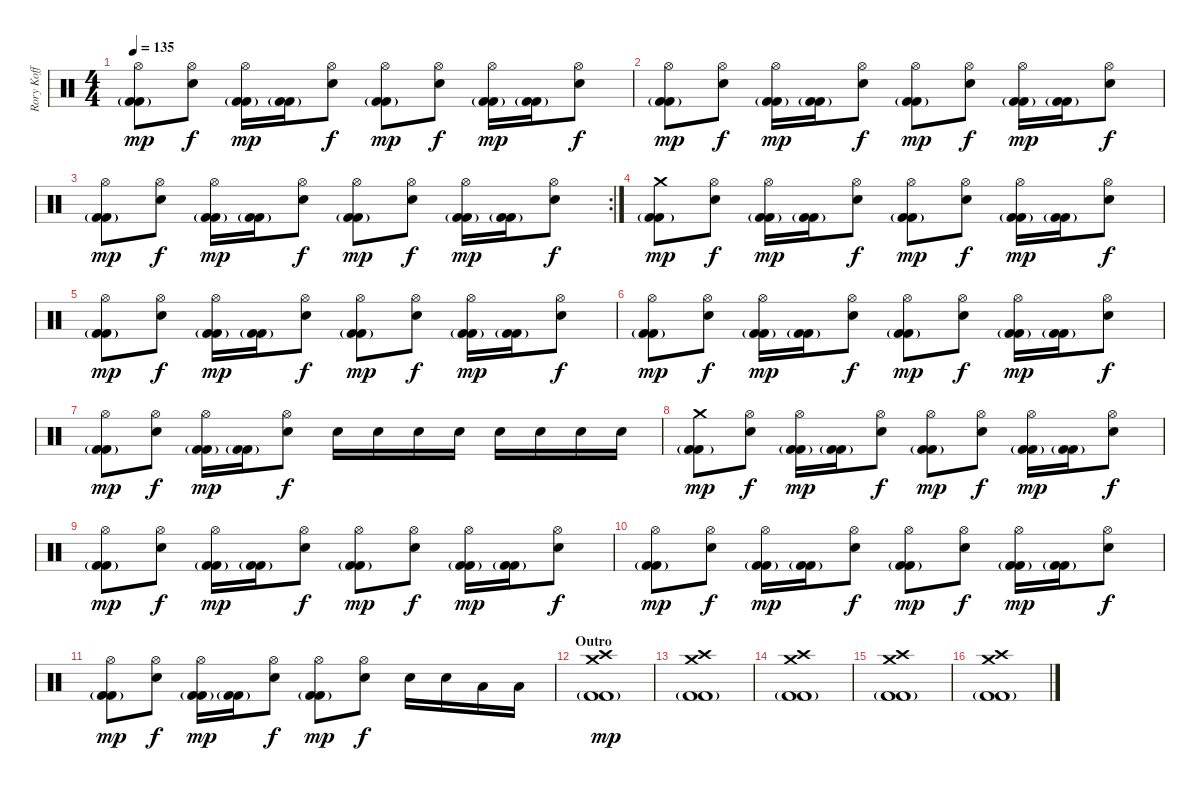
\track ("Rory Koff" "Rory Koff") {instrument percussion}
\staff {score}
\articulation defaults
\ts (4 4)
\tempo 135
\clef neutral
\ks c
("Hi-Hat (open)" "Kick (hit) 2"{g} "Kick (hit) 2").8{dy mp} ("Hi-Hat (open)" "Snare (hit) 2").8{dy f} ("Hi-Hat (open)" "Kick (hit) 2"{g} "Kick (hit) 2").16{dy mp} ("Kick (hit) 2"{g} "Kick (hit) 2").16 ("Hi-Hat (open)" "Snare (hit) 2").8{dy f} ("Hi-Hat (open)" "Kick (hit) 2"{g} "Kick (hit) 2").8{dy mp} ("Hi-Hat (open)" "Snare (hit) 2").8{dy f} ("Hi-Hat (open)" "Kick (hit) 2"{g} "Kick (hit) 2").16{dy mp} ("Kick (hit) 2"{g} "Kick (hit) 2").16 ("Hi-Hat (open)" "Snare (hit) 2").8{dy f} |
("Hi-Hat (open)" "Kick (hit) 2"{g} "Kick (hit) 2").8{dy mp} ("Hi-Hat (open)" "Snare (hit) 2").8{dy f} ("Hi-Hat (open)" "Kick (hit) 2"{g} "Kick (hit) 2").16{dy mp} ("Kick (hit) 2"{g} "Kick (hit) 2").16 ("Hi-Hat (open)" "Snare (hit) 2").8{dy f} ("Hi-Hat (open)" "Kick (hit) 2"{g} "Kick (hit) 2").8{dy mp} ("Hi-Hat (open)" "Snare (hit) 2").8{dy f} ("Hi-Hat (open)" "Kick (hit) 2"{g} "Kick (hit) 2").16{dy mp} ("Kick (hit) 2"{g} "Kick (hit) 2").16 ("Hi-Hat (open)" "Snare (hit) 2").8{dy f} |
\rc 2
("Hi-Hat (open)" "Kick (hit) 2"{g} "Kick (hit) 2").8{dy mp} ("Hi-Hat (open)" "Snare (hit) 2").8{dy f} ("Hi-Hat (open)" "Kick (hit) 2"{g} "Kick (hit) 2").16{dy mp} ("Kick (hit) 2"{g} "Kick (hit) 2").16 ("Hi-Hat (open)" "Snare (hit) 2").8{dy f} ("Hi-Hat (open)" "Kick (hit) 2"{g} "Kick (hit) 2").8{dy mp} ("Hi-Hat (open)" "Snare (hit) 2").8{dy f} ("Hi-Hat (open)" "Kick (hit) 2"{g} "Kick (hit) 2").16{dy mp} ("Kick (hit) 2"{g} "Kick (hit) 2").16 ("Hi-Hat (open)" "Snare (hit) 2").8{dy f} |
("Crash medium (hit)" "Kick (hit) 2"{g} "Kick (hit) 2").8{dy mp} ("Hi-Hat (open)" "Snare (hit) 2").8{dy f} ("Hi-Hat (open)" "Kick (hit) 2"{g} "Kick (hit) 2").16{dy mp} ("Kick (hit) 2"{g} "Kick (hit) 2").16 ("Hi-Hat (open)" "Snare (hit) 2").8{dy f} ("Hi-Hat (open)" "Kick (hit) 2"{g} "Kick (hit) 2").8{dy mp} ("Hi-Hat (open)" "Snare (hit) 2").8{dy f} ("Hi-Hat (open)" "Kick (hit) 2"{g} "Kick (hit) 2").16{dy mp} ("Kick (hit) 2"{g} "Kick (hit) 2").16 ("Hi-Hat (open)" "Snare (hit) 2").8{dy f} |
("Hi-Hat (open)" "Kick (hit) 2"{g} "Kick (hit) 2").8{dy mp} ("Hi-Hat (open)" "Snare (hit) 2").8{dy f} ("Hi-Hat (open)" "Kick (hit) 2"{g} "Kick (hit) 2").16{dy mp} ("Kick (hit) 2"{g} "Kick (hit) 2").16 ("Hi-Hat (open)" "Snare (hit) 2").8{dy f} ("Hi-Hat (open)" "Kick (hit) 2"{g} "Kick (hit) 2").8{dy mp} ("Hi-Hat (open)" "Snare (hit) 2").8{dy f} ("Hi-Hat (open)" "Kick (hit) 2"{g} "Kick (hit) 2").16{dy mp} ("Kick (hit) 2"{g} "Kick (hit) 2").16 ("Hi-Hat (open)" "Snare (hit) 2").8{dy f} |
("Hi-Hat (open)" "Kick (hit) 2"{g} "Kick (hit) 2").8{dy mp} ("Hi-Hat (open)" "Snare (hit) 2").8{dy f} ("Hi-Hat (open)" "Kick (hit) 2"{g} "Kick (hit) 2").16{dy mp} ("Kick (hit) 2"{g} "Kick (hit) 2").16 ("Hi-Hat (open)" "Snare (hit) 2").8{dy f} ("Hi-Hat (open)" "Kick (hit) 2"{g} "Kick (hit) 2").8{dy mp} ("Hi-Hat (open)" "Snare (hit) 2").8{dy f} ("Hi-Hat (open)" "Kick (hit) 2"{g} "Kick (hit) 2").16{dy mp} ("Kick (hit) 2"{g} "Kick (hit) 2").16 ("Hi-Hat (open)" "Snare (hit) 2").8{dy f} |
("Hi-Hat (open)" "Kick (hit) 2"{g} "Kick (hit) 2").8{dy mp} ("Hi-Hat (open)" "Snare (hit) 2").8{dy f} ("Hi-Hat (open)" "Kick (hit) 2"{g} "Kick (hit) 2").16{dy mp} ("Kick (hit) 2"{g} "Kick (hit) 2").16 ("Hi-Hat (open)" "Snare (hit) 2").8{dy f} "Snare (hit) 2".16 "Snare (hit) 2".16 "Snare (hit) 2".16 "Snare (hit) 2".16 "Snare (hit) 2".16 "Snare (hit) 2".16 "Snare (hit) 2".16 "Snare (hit) 2".16 |
("Crash medium (hit)" "Kick (hit) 2"{g} "Kick (hit) 2").8{dy mp} ("Hi-Hat (open)" "Snare (hit) 2").8{dy f} ("Hi-Hat (open)" "Kick (hit) 2"{g} "Kick (hit) 2").16{dy mp} ("Kick (hit) 2"{g} "Kick (hit) 2").16 ("Hi-Hat (open)" "Snare (hit) 2").8{dy f} ("Hi-Hat (open)" "Kick (hit) 2"{g} "Kick (hit) 2").8{dy mp} ("Hi-Hat (open)" "Snare (hit) 2").8{dy f} ("Hi-Hat (open)" "Kick (hit) 2"{g} "Kick (hit) 2").16{dy mp} ("Kick (hit) 2"{g} "Kick (hit) 2").16 ("Hi-Hat (open)" "Snare (hit) 2").8{dy f} |
("Hi-Hat (open)" "Kick (hit) 2"{g} "Kick (hit) 2").8{dy mp} ("Hi-Hat (open)" "Snare (hit) 2").8{dy f} ("Hi-Hat (open)" "Kick (hit) 2"{g} "Kick (hit) 2").16{dy mp} ("Kick (hit) 2"{g} "Kick (hit) 2").16 ("Hi-Hat (open)" "Snare (hit) 2").8{dy f} ("Hi-Hat (open)" "Kick (hit) 2"{g} "Kick (hit) 2").8{dy mp} ("Hi-Hat (open)" "Snare (hit) 2").8{dy f} ("Hi-Hat (open)" "Kick (hit) 2"{g} "Kick (hit) 2").16{dy mp} ("Kick (hit) 2"{g} "Kick (hit) 2").16 ("Hi-Hat (open)" "Snare (hit) 2").8{dy f} |
("Hi-Hat (open)" "Kick (hit) 2"{g} "Kick (hit) 2").8{dy mp} ("Hi-Hat (open)" "Snare (hit) 2").8{dy f} ("Hi-Hat (open)" "Kick (hit) 2"{g} "Kick (hit) 2").16{dy mp} ("Kick (hit) 2"{g} "Kick (hit) 2").16 ("Hi-Hat (open)" "Snare (hit) 2").8{dy f} ("Hi-Hat (open)" "Kick (hit) 2"{g} "Kick (hit) 2").8{dy mp} ("Hi-Hat (open)" "Snare (hit) 2").8{dy f} ("Hi-Hat (open)" "Kick (hit) 2"{g} "Kick (hit) 2").16{dy mp} ("Kick (hit) 2"{g} "Kick (hit) 2").16 ("Hi-Hat (open)" "Snare (hit) 2").8{dy f} |
("Hi-Hat (open)" "Kick (hit) 2"{g} "Kick (hit) 2").8{dy mp} ("Hi-Hat (open)" "Snare (hit) 2").8{dy f} ("Hi-Hat (open)" "Kick (hit) 2"{g} "Kick (hit) 2").16{dy mp} ("Kick (hit) 2"{g} "Kick (hit) 2").16 ("Hi-Hat (open)" "Snare (hit) 2").8{dy f} ("Hi-Hat (open)" "Kick (hit) 2"{g} "Kick (hit) 2").8{dy mp} ("Hi-Hat (open)" "Snare (hit) 2").8{dy f} "Snare (hit) 2".16 "Snare (hit) 2".16 "Low Tom (hit)".16 "Low Tom (hit)".16 |
\section ("" "Outro")
("Crash medium (hit)" "Crash high (hit)" "Kick (hit) 2"{g} "Kick (hit) 2").1{dy mp} |
("Crash medium (hit)" "Crash high (hit)" "Kick (hit) 2"{g} "Kick (hit) 2").1 |
("Crash medium (hit)" "Crash high (hit)" "Kick (hit) 2"{g} "Kick (hit) 2").1 |
("Crash medium (hit)" "Crash high (hit)" "Kick (hit) 2"{g} "Kick (hit) 2").1 |
("Crash medium (hit)" "Crash high (hit)" "Kick (hit) 2"{g} "Kick (hit) 2").1
